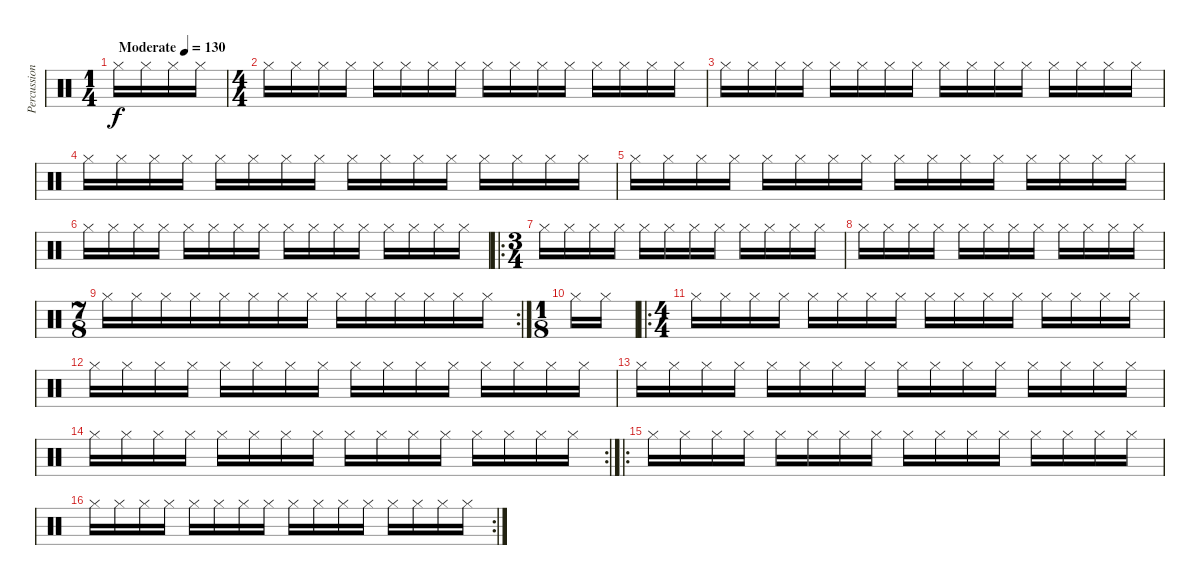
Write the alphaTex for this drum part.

\track ("Percussion" "Percussion") {instrument percussion}
\staff {score}
\articulation defaults
\ts (1 4)
\tempo (130 "Moderate")
\clef neutral
\ks c "Hi-Hat (closed)".16{dy f} "Hi-Hat (closed)".16 "Hi-Hat (closed)".16 "Hi-Hat (closed)".16
|
\ts (4 4)
"Hi-Hat (closed)".16 "Hi-Hat (closed)".16 "Hi-Hat (closed)".16 "Hi-Hat (closed)".16 "Hi-Hat (closed)".16 "Hi-Hat (closed)".16 "Hi-Hat (closed)".16 "Hi-Hat (closed)".16 "Hi-Hat (closed)".16 "Hi-Hat (closed)".16 "Hi-Hat (closed)".16 "Hi-Hat (closed)".16 "Hi-Hat (closed)".16 "Hi-Hat (closed)".16 "Hi-Hat (closed)".16 "Hi-Hat (closed)".16 |
"Hi-Hat (closed)".16 "Hi-Hat (closed)".16 "Hi-Hat (closed)".16 "Hi-Hat (closed)".16 "Hi-Hat (closed)".16 "Hi-Hat (closed)".16 "Hi-Hat (closed)".16 "Hi-Hat (closed)".16 "Hi-Hat (closed)".16 "Hi-Hat (closed)".16 "Hi-Hat (closed)".16 "Hi-Hat (closed)".16 "Hi-Hat (closed)".16 "Hi-Hat (closed)".16 "Hi-Hat (closed)".16 "Hi-Hat (closed)".16 |
"Hi-Hat (closed)".16 "Hi-Hat (closed)".16 "Hi-Hat (closed)".16 "Hi-Hat (closed)".16 "Hi-Hat (closed)".16 "Hi-Hat (closed)".16 "Hi-Hat (closed)".16 "Hi-Hat (closed)".16 "Hi-Hat (closed)".16 "Hi-Hat (closed)".16 "Hi-Hat (closed)".16 "Hi-Hat (closed)".16 "Hi-Hat (closed)".16 "Hi-Hat (closed)".16 "Hi-Hat (closed)".16 "Hi-Hat (closed)".16 |
"Hi-Hat (closed)".16 "Hi-Hat (closed)".16 "Hi-Hat (closed)".16 "Hi-Hat (closed)".16 "Hi-Hat (closed)".16 "Hi-Hat (closed)".16 "Hi-Hat (closed)".16 "Hi-Hat (closed)".16 "Hi-Hat (closed)".16 "Hi-Hat (closed)".16 "Hi-Hat (closed)".16 "Hi-Hat (closed)".16 "Hi-Hat (closed)".16 "Hi-Hat (closed)".16 "Hi-Hat (closed)".16 "Hi-Hat (closed)".16 |
"Hi-Hat (closed)".16 "Hi-Hat (closed)".16 "Hi-Hat (closed)".16 "Hi-Hat (closed)".16 "Hi-Hat (closed)".16 "Hi-Hat (closed)".16 "Hi-Hat (closed)".16 "Hi-Hat (closed)".16 "Hi-Hat (closed)".16 "Hi-Hat (closed)".16 "Hi-Hat (closed)".16 "Hi-Hat (closed)".16 "Hi-Hat (closed)".16 "Hi-Hat (closed)".16 "Hi-Hat (closed)".16 "Hi-Hat (closed)".16 |
\ro
\ts (3 4)
"Hi-Hat (closed)".16 "Hi-Hat (closed)".16 "Hi-Hat (closed)".16 "Hi-Hat (closed)".16 "Hi-Hat (closed)".16 "Hi-Hat (closed)".16 "Hi-Hat (closed)".16 "Hi-Hat (closed)".16 "Hi-Hat (closed)".16 "Hi-Hat (closed)".16 "Hi-Hat (closed)".16 "Hi-Hat (closed)".16 |
"Hi-Hat (closed)".16 "Hi-Hat (closed)".16 "Hi-Hat (closed)".16 "Hi-Hat (closed)".16 "Hi-Hat (closed)".16 "Hi-Hat (closed)".16 "Hi-Hat (closed)".16 "Hi-Hat (closed)".16 "Hi-Hat (closed)".16 "Hi-Hat (closed)".16 "Hi-Hat (closed)".16 "Hi-Hat (closed)".16 |
\rc 2
\ts (7 8)
"Hi-Hat (closed)".16 "Hi-Hat (closed)".16 "Hi-Hat (closed)".16 "Hi-Hat (closed)".16 "Hi-Hat (closed)".16 "Hi-Hat (closed)".16 "Hi-Hat (closed)".16 "Hi-Hat (closed)".16 "Hi-Hat (closed)".16 "Hi-Hat (closed)".16 "Hi-Hat (closed)".16 "Hi-Hat (closed)".16 "Hi-Hat (closed)".16 "Hi-Hat (closed)".16 |
\ts (1 8)
"Hi-Hat (closed)".16 "Hi-Hat (closed)".16 |
\ro
\ts (4 4)
"Hi-Hat (closed)".16 "Hi-Hat (closed)".16 "Hi-Hat (closed)".16 "Hi-Hat (closed)".16 "Hi-Hat (closed)".16 "Hi-Hat (closed)".16 "Hi-Hat (closed)".16 "Hi-Hat (closed)".16 "Hi-Hat (closed)".16 "Hi-Hat (closed)".16 "Hi-Hat (closed)".16 "Hi-Hat (closed)".16 "Hi-Hat (closed)".16 "Hi-Hat (closed)".16 "Hi-Hat (closed)".16 "Hi-Hat (closed)".16 |
"Hi-Hat (closed)".16 "Hi-Hat (closed)".16 "Hi-Hat (closed)".16 "Hi-Hat (closed)".16 "Hi-Hat (closed)".16 "Hi-Hat (closed)".16 "Hi-Hat (closed)".16 "Hi-Hat (closed)".16 "Hi-Hat (closed)".16 "Hi-Hat (closed)".16 "Hi-Hat (closed)".16 "Hi-Hat (closed)".16 "Hi-Hat (closed)".16 "Hi-Hat (closed)".16 "Hi-Hat (closed)".16 "Hi-Hat (closed)".16 |
"Hi-Hat (closed)".16 "Hi-Hat (closed)".16 "Hi-Hat (closed)".16 "Hi-Hat (closed)".16 "Hi-Hat (closed)".16 "Hi-Hat (closed)".16 "Hi-Hat (closed)".16 "Hi-Hat (closed)".16 "Hi-Hat (closed)".16 "Hi-Hat (closed)".16 "Hi-Hat (closed)".16 "Hi-Hat (closed)".16 "Hi-Hat (closed)".16 "Hi-Hat (closed)".16 "Hi-Hat (closed)".16 "Hi-Hat (closed)".16 |
\rc 2 "Hi-Hat (closed)".16 "Hi-Hat (closed)".16 "Hi-Hat (closed)".16 "Hi-Hat (closed)".16 "Hi-Hat (closed)".16 "Hi-Hat (closed)".16 "Hi-Hat (closed)".16 "Hi-Hat (closed)".16 "Hi-Hat (closed)".16 "Hi-Hat (closed)".16 "Hi-Hat (closed)".16 "Hi-Hat (closed)".16 "Hi-Hat (closed)".16 "Hi-Hat (closed)".16 "Hi-Hat (closed)".16 "Hi-Hat (closed)".16
|
\ro "Hi-Hat (closed)".16 "Hi-Hat (closed)".16 "Hi-Hat (closed)".16 "Hi-Hat (closed)".16 "Hi-Hat (closed)".16 "Hi-Hat (closed)".16 "Hi-Hat (closed)".16 "Hi-Hat (closed)".16 "Hi-Hat (closed)".16 "Hi-Hat (closed)".16 "Hi-Hat (closed)".16 "Hi-Hat (closed)".16 "Hi-Hat (closed)".16 "Hi-Hat (closed)".16 "Hi-Hat (closed)".16 "Hi-Hat (closed)".16
|
\rc 2 "Hi-Hat (closed)".16 "Hi-Hat (closed)".16 "Hi-Hat (closed)".16 "Hi-Hat (closed)".16 "Hi-Hat (closed)".16 "Hi-Hat (closed)".16 "Hi-Hat (closed)".16 "Hi-Hat (closed)".16 "Hi-Hat (closed)".16 "Hi-Hat (closed)".16 "Hi-Hat (closed)".16 "Hi-Hat (closed)".16 "Hi-Hat (closed)".16 "Hi-Hat (closed)".16 "Hi-Hat (closed)".16 "Hi-Hat (closed)".16
